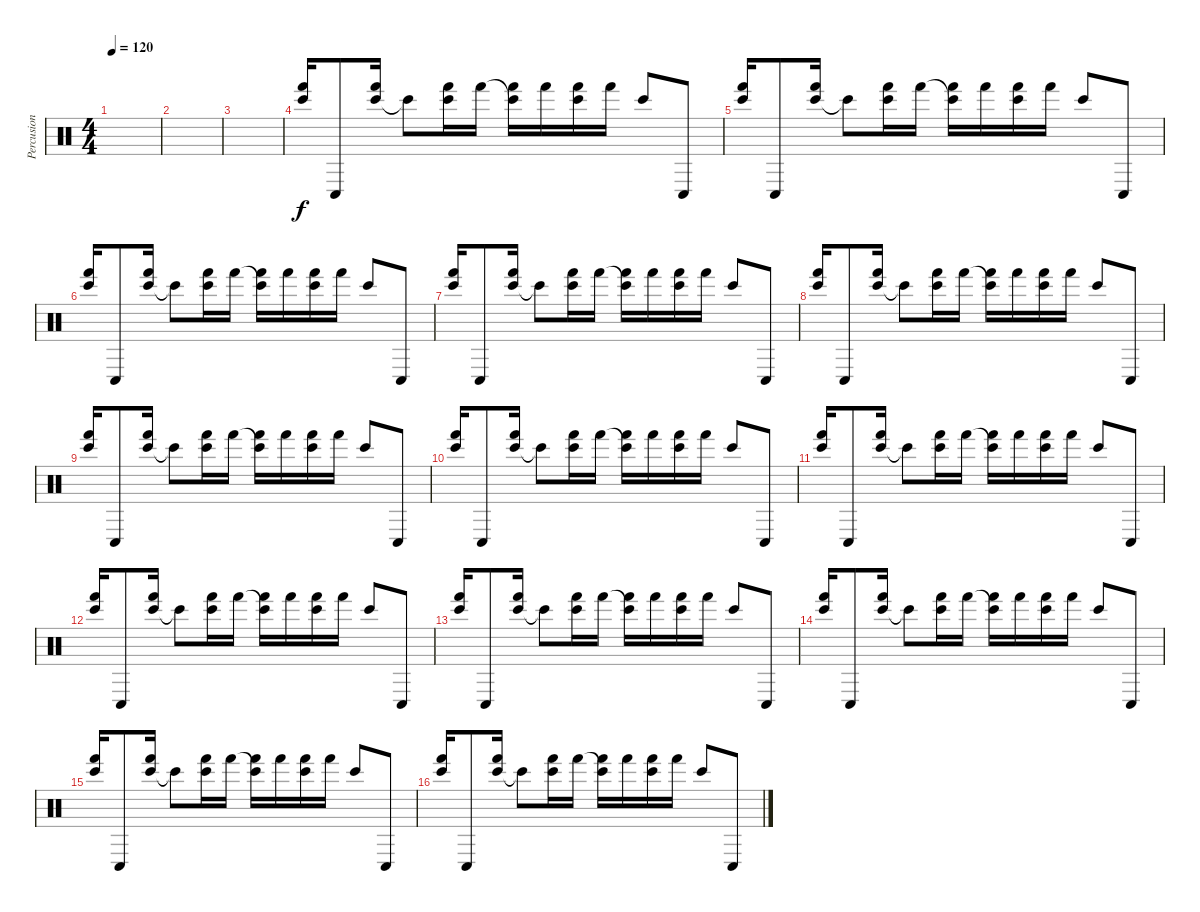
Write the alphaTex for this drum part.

\track ("Percusion" "Percusion") {instrument percussion}
\staff {score}
\articulation defaults
\ts (4 4)
\tempo 120
\clef neutral
\ks c
|
|
|
("Bongo High (hit)" "Hand (hit)").16 "Conga low (hit)".8 ("Bongo High (hit)" "Hand (hit)").16 "Bongo High (hit)"{t}.8 ("Bongo High (hit)" "Hand (hit)").16 "Hand (hit)".16 ("Bongo High (hit)"{t} "Hand (hit)").16 "Hand (hit)".16 ("Bongo High (hit)" "Hand (hit)").16 "Hand (hit)".16 "Bongo High (hit)".8 "Conga low (hit)".8 |
("Bongo High (hit)" "Hand (hit)").16 "Conga low (hit)".8 ("Bongo High (hit)" "Hand (hit)").16 "Bongo High (hit)"{t}.8 ("Bongo High (hit)" "Hand (hit)").16 "Hand (hit)".16 ("Bongo High (hit)"{t} "Hand (hit)").16 "Hand (hit)".16 ("Bongo High (hit)" "Hand (hit)").16 "Hand (hit)".16 "Bongo High (hit)".8 "Conga low (hit)".8 |
("Bongo High (hit)" "Hand (hit)").16 "Conga low (hit)".8 ("Bongo High (hit)" "Hand (hit)").16 "Bongo High (hit)"{t}.8 ("Bongo High (hit)" "Hand (hit)").16 "Hand (hit)".16 ("Bongo High (hit)"{t} "Hand (hit)").16 "Hand (hit)".16 ("Bongo High (hit)" "Hand (hit)").16 "Hand (hit)".16 "Bongo High (hit)".8 "Conga low (hit)".8 |
("Bongo High (hit)" "Hand (hit)").16 "Conga low (hit)".8 ("Bongo High (hit)" "Hand (hit)").16 "Bongo High (hit)"{t}.8 ("Bongo High (hit)" "Hand (hit)").16 "Hand (hit)".16 ("Bongo High (hit)"{t} "Hand (hit)").16 "Hand (hit)".16 ("Bongo High (hit)" "Hand (hit)").16 "Hand (hit)".16 "Bongo High (hit)".8 "Conga low (hit)".8 |
("Bongo High (hit)" "Hand (hit)").16 "Conga low (hit)".8 ("Bongo High (hit)" "Hand (hit)").16 "Bongo High (hit)"{t}.8 ("Bongo High (hit)" "Hand (hit)").16 "Hand (hit)".16 ("Bongo High (hit)"{t} "Hand (hit)").16 "Hand (hit)".16 ("Bongo High (hit)" "Hand (hit)").16 "Hand (hit)".16 "Bongo High (hit)".8 "Conga low (hit)".8 |
("Bongo High (hit)" "Hand (hit)").16 "Conga low (hit)".8 ("Bongo High (hit)" "Hand (hit)").16 "Bongo High (hit)"{t}.8 ("Bongo High (hit)" "Hand (hit)").16 "Hand (hit)".16 ("Bongo High (hit)"{t} "Hand (hit)").16 "Hand (hit)".16 ("Bongo High (hit)" "Hand (hit)").16 "Hand (hit)".16 "Bongo High (hit)".8 "Conga low (hit)".8 |
("Bongo High (hit)" "Hand (hit)").16 "Conga low (hit)".8 ("Bongo High (hit)" "Hand (hit)").16 "Bongo High (hit)"{t}.8 ("Bongo High (hit)" "Hand (hit)").16 "Hand (hit)".16 ("Bongo High (hit)"{t} "Hand (hit)").16 "Hand (hit)".16 ("Bongo High (hit)" "Hand (hit)").16 "Hand (hit)".16 "Bongo High (hit)".8 "Conga low (hit)".8 |
("Bongo High (hit)" "Hand (hit)").16 "Conga low (hit)".8 ("Bongo High (hit)" "Hand (hit)").16 "Bongo High (hit)"{t}.8 ("Bongo High (hit)" "Hand (hit)").16 "Hand (hit)".16 ("Bongo High (hit)"{t} "Hand (hit)").16 "Hand (hit)".16 ("Bongo High (hit)" "Hand (hit)").16 "Hand (hit)".16 "Bongo High (hit)".8 "Conga low (hit)".8 |
("Bongo High (hit)" "Hand (hit)").16 "Conga low (hit)".8 ("Bongo High (hit)" "Hand (hit)").16 "Bongo High (hit)"{t}.8 ("Bongo High (hit)" "Hand (hit)").16 "Hand (hit)".16 ("Bongo High (hit)"{t} "Hand (hit)").16 "Hand (hit)".16 ("Bongo High (hit)" "Hand (hit)").16 "Hand (hit)".16 "Bongo High (hit)".8 "Conga low (hit)".8 |
("Bongo High (hit)" "Hand (hit)").16 "Conga low (hit)".8 ("Bongo High (hit)" "Hand (hit)").16 "Bongo High (hit)"{t}.8 ("Bongo High (hit)" "Hand (hit)").16 "Hand (hit)".16 ("Bongo High (hit)"{t} "Hand (hit)").16 "Hand (hit)".16 ("Bongo High (hit)" "Hand (hit)").16 "Hand (hit)".16 "Bongo High (hit)".8 "Conga low (hit)".8 |
("Bongo High (hit)" "Hand (hit)").16 "Conga low (hit)".8 ("Bongo High (hit)" "Hand (hit)").16 "Bongo High (hit)"{t}.8 ("Bongo High (hit)" "Hand (hit)").16 "Hand (hit)".16 ("Bongo High (hit)"{t} "Hand (hit)").16 "Hand (hit)".16 ("Bongo High (hit)" "Hand (hit)").16 "Hand (hit)".16 "Bongo High (hit)".8 "Conga low (hit)".8 |
("Bongo High (hit)" "Hand (hit)").16 "Conga low (hit)".8 ("Bongo High (hit)" "Hand (hit)").16 "Bongo High (hit)"{t}.8 ("Bongo High (hit)" "Hand (hit)").16 "Hand (hit)".16 ("Bongo High (hit)"{t} "Hand (hit)").16 "Hand (hit)".16 ("Bongo High (hit)" "Hand (hit)").16 "Hand (hit)".16 "Bongo High (hit)".8 "Conga low (hit)".8 |
("Bongo High (hit)" "Hand (hit)").16 "Conga low (hit)".8 ("Bongo High (hit)" "Hand (hit)").16 "Bongo High (hit)"{t}.8 ("Bongo High (hit)" "Hand (hit)").16 "Hand (hit)".16 ("Bongo High (hit)"{t} "Hand (hit)").16 "Hand (hit)".16 ("Bongo High (hit)" "Hand (hit)").16 "Hand (hit)".16 "Bongo High (hit)".8 "Conga low (hit)".8
